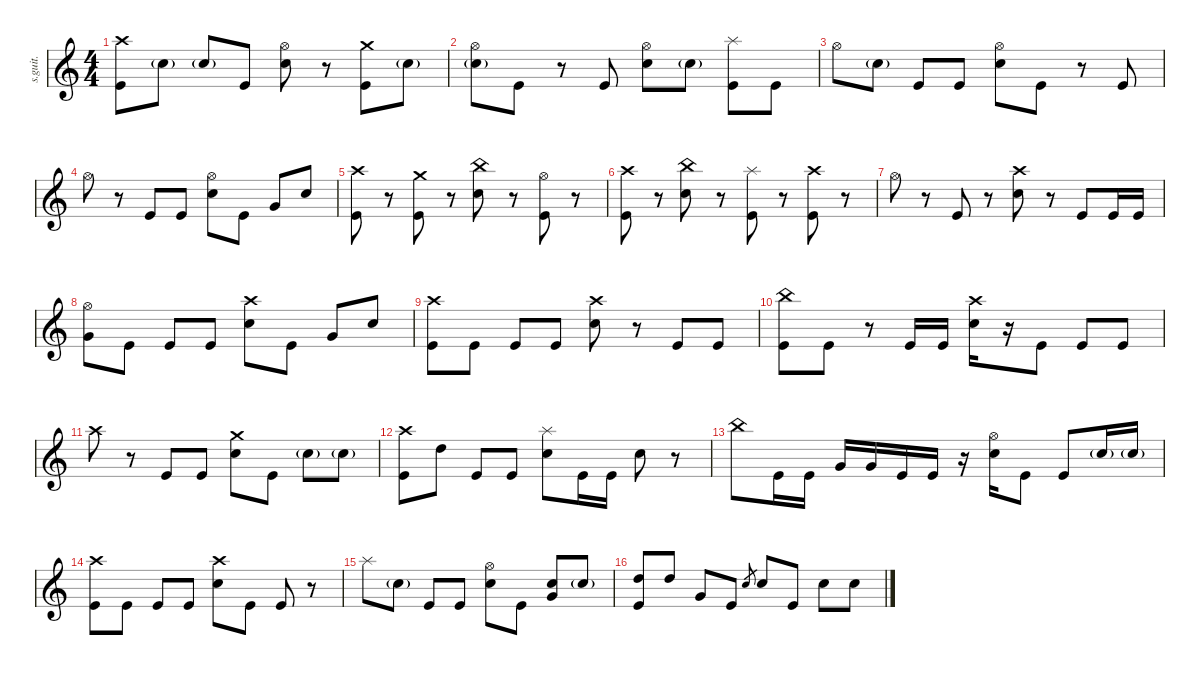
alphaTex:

\defaultSystemsLayout 4
\hideDynamics
\bracketExtendMode nobrackets
\track ("Matt Halpern" "s.guit.") {instrument percussion}
\staff {score}
\articulation defaults
\ts (4 4)
\tempo (213 hide)
\clef g2
\ks c
("Crash high (hit)" "Kick (hit)").8{lyrics (0 "") lyrics (1 "") lyrics (2 "") lyrics (3 "") lyrics (4 "") dy mf} "Snare (hit) 2"{g}.8{lyrics (0 "") lyrics (1 "") lyrics (2 "") lyrics (3 "") lyrics (4 "")} "Snare (hit) 2"{g}.8{lyrics (0 "") lyrics (1 "") lyrics (2 "") lyrics (3 "") lyrics (4 "")} "Kick (hit)".8{lyrics (0 "") lyrics (1 "") lyrics (2 "") lyrics (3 "") lyrics (4 "")} ("Hi-Hat (open)" "Snare (hit) 2").8{lyrics (0 "") lyrics (1 "") lyrics (2 "") lyrics (3 "") lyrics (4 "")} r.8 ("Crash medium (hit)" "Kick (hit)").8{lyrics (0 "") lyrics (1 "") lyrics (2 "") lyrics (3 "") lyrics (4 "")} "Snare (hit) 2"{g}.8{lyrics (0 "") lyrics (1 "") lyrics (2 "") lyrics (3 "") lyrics (4 "")} |
("Hi-Hat (open)" "Snare (hit) 2"{g}).8{lyrics (0 "") lyrics (1 "") lyrics (2 "") lyrics (3 "") lyrics (4 "")} "Kick (hit)".8{lyrics (0 "") lyrics (1 "") lyrics (2 "") lyrics (3 "") lyrics (4 "")} r.8 "Kick (hit)".8{lyrics (0 "") lyrics (1 "") lyrics (2 "") lyrics (3 "") lyrics (4 "")} ("Hi-Hat (open)" "Snare (hit) 2").8{lyrics (0 "") lyrics (1 "") lyrics (2 "") lyrics (3 "") lyrics (4 "")} "Snare (hit) 2"{g}.8{lyrics (0 "") lyrics (1 "") lyrics (2 "") lyrics (3 "") lyrics (4 "")} ("Splash (hit)" "Kick (hit)").8{lyrics (0 "") lyrics (1 "") lyrics (2 "") lyrics (3 "") lyrics (4 "")} "Kick (hit)".8{lyrics (0 "") lyrics (1 "") lyrics (2 "") lyrics (3 "") lyrics (4 "")} |
"Hi-Hat (open)".8{lyrics (0 "") lyrics (1 "") lyrics (2 "") lyrics (3 "") lyrics (4 "")} "Snare (hit) 2"{g}.8{lyrics (0 "") lyrics (1 "") lyrics (2 "") lyrics (3 "") lyrics (4 "")} "Kick (hit)".8{lyrics (0 "") lyrics (1 "") lyrics (2 "") lyrics (3 "") lyrics (4 "")} "Kick (hit)".8{lyrics (0 "") lyrics (1 "") lyrics (2 "") lyrics (3 "") lyrics (4 "")} ("Hi-Hat (open)" "Snare (hit) 2").8{lyrics (0 "") lyrics (1 "") lyrics (2 "") lyrics (3 "") lyrics (4 "")} "Kick (hit)".8{lyrics (0 "") lyrics (1 "") lyrics (2 "") lyrics (3 "") lyrics (4 "")} r.8 "Kick (hit)".8{lyrics (0 "") lyrics (1 "") lyrics (2 "") lyrics (3 "") lyrics (4 "")} |
"Hi-Hat (open)".8{lyrics (0 "") lyrics (1 "") lyrics (2 "") lyrics (3 "") lyrics (4 "")} r.8 "Kick (hit)".8{lyrics (0 "") lyrics (1 "") lyrics (2 "") lyrics (3 "") lyrics (4 "")} "Kick (hit)".8{lyrics (0 "") lyrics (1 "") lyrics (2 "") lyrics (3 "") lyrics (4 "")} ("Hi-Hat (open)" "Snare (hit) 2").8{lyrics (0 "") lyrics (1 "") lyrics (2 "") lyrics (3 "") lyrics (4 "")} "Kick (hit)".8{lyrics (0 "") lyrics (1 "") lyrics (2 "") lyrics (3 "") lyrics (4 "")} "Very Low Tom (hit)".8{lyrics (0 "") lyrics (1 "") lyrics (2 "") lyrics (3 "") lyrics (4 "")} "Snare (hit) 2".8{lyrics (0 "") lyrics (1 "") lyrics (2 "") lyrics (3 "") lyrics (4 "")} |
("Crash high (hit)" "Kick (hit)").8{lyrics (0 "") lyrics (1 "") lyrics (2 "") lyrics (3 "") lyrics (4 "")} r.8 ("Crash medium (hit)" "Kick (hit)").8{lyrics (0 "") lyrics (1 "") lyrics (2 "") lyrics (3 "") lyrics (4 "")} r.8 ("China (hit)" "Snare (hit) 2").8{lyrics (0 "") lyrics (1 "") lyrics (2 "") lyrics (3 "") lyrics (4 "")} r.8 ("Hi-Hat (open)" "Kick (hit)").8{lyrics (0 "") lyrics (1 "") lyrics (2 "") lyrics (3 "") lyrics (4 "")} r.8 |
("Crash high (hit)" "Kick (hit)").8{lyrics (0 "") lyrics (1 "") lyrics (2 "") lyrics (3 "") lyrics (4 "")} r.8 ("China (hit)" "Snare (hit) 2").8{lyrics (0 "") lyrics (1 "") lyrics (2 "") lyrics (3 "") lyrics (4 "")} r.8 ("Splash (hit)" "Kick (hit)").8{lyrics (0 "") lyrics (1 "") lyrics (2 "") lyrics (3 "") lyrics (4 "")} r.8 ("Crash high (hit)" "Kick (hit)").8{lyrics (0 "") lyrics (1 "") lyrics (2 "") lyrics (3 "") lyrics (4 "")} r.8 |
"Hi-Hat (open)".8{lyrics (0 "") lyrics (1 "") lyrics (2 "") lyrics (3 "") lyrics (4 "")} r.8 "Kick (hit)".8{lyrics (0 "") lyrics (1 "") lyrics (2 "") lyrics (3 "") lyrics (4 "")} r.8 ("Crash high (hit)" "Snare (hit) 2").8{lyrics (0 "") lyrics (1 "") lyrics (2 "") lyrics (3 "") lyrics (4 "")} r.8 "Kick (hit)".8{lyrics (0 "") lyrics (1 "") lyrics (2 "") lyrics (3 "") lyrics (4 "")} "Kick (hit)".16{lyrics (0 "") lyrics (1 "") lyrics (2 "") lyrics (3 "") lyrics (4 "")} "Kick (hit)".16{lyrics (0 "") lyrics (1 "") lyrics (2 "") lyrics (3 "") lyrics (4 "")} |
("Hi-Hat (open)" "Very Low Tom (hit)").8{lyrics (0 "") lyrics (1 "") lyrics (2 "") lyrics (3 "") lyrics (4 "")} "Kick (hit)".8{lyrics (0 "") lyrics (1 "") lyrics (2 "") lyrics (3 "") lyrics (4 "")} "Kick (hit)".8{lyrics (0 "") lyrics (1 "") lyrics (2 "") lyrics (3 "") lyrics (4 "")} "Kick (hit)".8{lyrics (0 "") lyrics (1 "") lyrics (2 "") lyrics (3 "") lyrics (4 "")} ("Crash high (hit)" "Snare (hit) 2").8{lyrics (0 "") lyrics (1 "") lyrics (2 "") lyrics (3 "") lyrics (4 "")} "Kick (hit)".8{lyrics (0 "") lyrics (1 "") lyrics (2 "") lyrics (3 "") lyrics (4 "")} "Very Low Tom (hit)".8{lyrics (0 "") lyrics (1 "") lyrics (2 "") lyrics (3 "") lyrics (4 "")} "Snare (hit) 2".8{lyrics (0 "") lyrics (1 "") lyrics (2 "") lyrics (3 "") lyrics (4 "")} |
("Crash high (hit)" "Kick (hit)").8{lyrics (0 "") lyrics (1 "") lyrics (2 "") lyrics (3 "") lyrics (4 "")} "Kick (hit)".8{lyrics (0 "") lyrics (1 "") lyrics (2 "") lyrics (3 "") lyrics (4 "")} "Kick (hit)".8{lyrics (0 "") lyrics (1 "") lyrics (2 "") lyrics (3 "") lyrics (4 "")} "Kick (hit)".8{lyrics (0 "") lyrics (1 "") lyrics (2 "") lyrics (3 "") lyrics (4 "")} ("Crash high (hit)" "Snare (hit) 2").8{lyrics (0 "") lyrics (1 "") lyrics (2 "") lyrics (3 "") lyrics (4 "")} r.8 "Kick (hit)".8{lyrics (0 "") lyrics (1 "") lyrics (2 "") lyrics (3 "") lyrics (4 "")} "Kick (hit)".8{lyrics (0 "") lyrics (1 "") lyrics (2 "") lyrics (3 "") lyrics (4 "")} |
("China (hit)" "Kick (hit)").8{lyrics (0 "") lyrics (1 "") lyrics (2 "") lyrics (3 "") lyrics (4 "")} "Kick (hit)".8{lyrics (0 "") lyrics (1 "") lyrics (2 "") lyrics (3 "") lyrics (4 "")} r.8 "Kick (hit)".16{lyrics (0 "") lyrics (1 "") lyrics (2 "") lyrics (3 "") lyrics (4 "")} "Kick (hit)".16{lyrics (0 "") lyrics (1 "") lyrics (2 "") lyrics (3 "") lyrics (4 "")} ("Crash high (hit)" "Snare (hit) 2").16{lyrics (0 "") lyrics (1 "") lyrics (2 "") lyrics (3 "") lyrics (4 "")} r.16 "Kick (hit)".8{lyrics (0 "") lyrics (1 "") lyrics (2 "") lyrics (3 "") lyrics (4 "")} "Kick (hit)".8{lyrics (0 "") lyrics (1 "") lyrics (2 "") lyrics (3 "") lyrics (4 "")} "Kick (hit)".8{lyrics (0 "") lyrics (1 "") lyrics (2 "") lyrics (3 "") lyrics (4 "")} |
"Crash high (hit)".8{lyrics (0 "") lyrics (1 "") lyrics (2 "") lyrics (3 "") lyrics (4 "")} r.8 "Kick (hit)".8{lyrics (0 "") lyrics (1 "") lyrics (2 "") lyrics (3 "") lyrics (4 "")} "Kick (hit)".8{lyrics (0 "") lyrics (1 "") lyrics (2 "") lyrics (3 "") lyrics (4 "")} ("Crash medium (hit)" "Snare (hit) 2").8{lyrics (0 "") lyrics (1 "") lyrics (2 "") lyrics (3 "") lyrics (4 "")} "Kick (hit)".8{lyrics (0 "") lyrics (1 "") lyrics (2 "") lyrics (3 "") lyrics (4 "")} "Snare (hit) 2"{g}.8{lyrics (0 "") lyrics (1 "") lyrics (2 "") lyrics (3 "") lyrics (4 "")} "Snare (hit) 2"{g}.8{lyrics (0 "") lyrics (1 "") lyrics (2 "") lyrics (3 "") lyrics (4 "")} |
("Crash high (hit)" "Kick (hit)").8{lyrics (0 "") lyrics (1 "") lyrics (2 "") lyrics (3 "") lyrics (4 "")} "High Tom (hit)".8{lyrics (0 "") lyrics (1 "") lyrics (2 "") lyrics (3 "") lyrics (4 "")} "Kick (hit)".8{lyrics (0 "") lyrics (1 "") lyrics (2 "") lyrics (3 "") lyrics (4 "")} "Kick (hit)".8{lyrics (0 "") lyrics (1 "") lyrics (2 "") lyrics (3 "") lyrics (4 "")} ("Splash (hit)" "Snare (hit) 2").8{lyrics (0 "") lyrics (1 "") lyrics (2 "") lyrics (3 "") lyrics (4 "")} "Kick (hit)".16{lyrics (0 "") lyrics (1 "") lyrics (2 "") lyrics (3 "") lyrics (4 "")} "Kick (hit)".16{lyrics (0 "") lyrics (1 "") lyrics (2 "") lyrics (3 "") lyrics (4 "")} "Snare (hit) 2".8{lyrics (0 "") lyrics (1 "") lyrics (2 "") lyrics (3 "") lyrics (4 "")} r.8 |
"China (hit)".8{lyrics (0 "") lyrics (1 "") lyrics (2 "") lyrics (3 "") lyrics (4 "")} "Kick (hit)".16{lyrics (0 "") lyrics (1 "") lyrics (2 "") lyrics (3 "") lyrics (4 "")} "Kick (hit)".16{lyrics (0 "") lyrics (1 "") lyrics (2 "") lyrics (3 "") lyrics (4 "")} "Very Low Tom (hit)".16{lyrics (0 "") lyrics (1 "") lyrics (2 "") lyrics (3 "") lyrics (4 "")} "Very Low Tom (hit)".16{lyrics (0 "") lyrics (1 "") lyrics (2 "") lyrics (3 "") lyrics (4 "")} "Kick (hit)".16{lyrics (0 "") lyrics (1 "") lyrics (2 "") lyrics (3 "") lyrics (4 "")} "Kick (hit)".16{lyrics (0 "") lyrics (1 "") lyrics (2 "") lyrics (3 "") lyrics (4 "")} r.16 ("Hi-Hat (open)" "Snare (hit) 2").16{lyrics (0 "") lyrics (1 "") lyrics (2 "") lyrics (3 "") lyrics (4 "")} "Kick (hit)".8{lyrics (0 "") lyrics (1 "") lyrics (2 "") lyrics (3 "") lyrics (4 "")} "Kick (hit)".8{lyrics (0 "") lyrics (1 "") lyrics (2 "") lyrics (3 "") lyrics (4 "")} "Snare (hit) 2"{g}.16{lyrics (0 "") lyrics (1 "") lyrics (2 "") lyrics (3 "") lyrics (4 "")} "Snare (hit) 2"{g}.16{lyrics (0 "") lyrics (1 "") lyrics (2 "") lyrics (3 "") lyrics (4 "")} |
("Crash high (hit)" "Kick (hit)").8{lyrics (0 "") lyrics (1 "") lyrics (2 "") lyrics (3 "") lyrics (4 "")} "Kick (hit)".8{lyrics (0 "") lyrics (1 "") lyrics (2 "") lyrics (3 "") lyrics (4 "")} "Kick (hit)".8{lyrics (0 "") lyrics (1 "") lyrics (2 "") lyrics (3 "") lyrics (4 "")} "Kick (hit)".8{lyrics (0 "") lyrics (1 "") lyrics (2 "") lyrics (3 "") lyrics (4 "")} ("Crash high (hit)" "Snare (hit) 2").8{lyrics (0 "") lyrics (1 "") lyrics (2 "") lyrics (3 "") lyrics (4 "")} "Kick (hit)".8{lyrics (0 "") lyrics (1 "") lyrics (2 "") lyrics (3 "") lyrics (4 "")} "Kick (hit)".8{lyrics (0 "") lyrics (1 "") lyrics (2 "") lyrics (3 "") lyrics (4 "")} r.8 |
"Splash (hit)".8{lyrics (0 "") lyrics (1 "") lyrics (2 "") lyrics (3 "") lyrics (4 "")} "Snare (hit) 2"{g}.8{lyrics (0 "") lyrics (1 "") lyrics (2 "") lyrics (3 "") lyrics (4 "")} "Kick (hit)".8{lyrics (0 "") lyrics (1 "") lyrics (2 "") lyrics (3 "") lyrics (4 "")} "Kick (hit)".8{lyrics (0 "") lyrics (1 "") lyrics (2 "") lyrics (3 "") lyrics (4 "")} ("Hi-Hat (open)" "Snare (hit) 2").8{lyrics (0 "") lyrics (1 "") lyrics (2 "") lyrics (3 "") lyrics (4 "")} "Kick (hit)".8{lyrics (0 "") lyrics (1 "") lyrics (2 "") lyrics (3 "") lyrics (4 "")} ("Snare (hit) 2" "Very Low Tom (hit)").8{lyrics (0 "") lyrics (1 "") lyrics (2 "") lyrics (3 "") lyrics (4 "")} "Snare (hit) 2"{g}.8{lyrics (0 "") lyrics (1 "") lyrics (2 "") lyrics (3 "") lyrics (4 "")} |
("High Tom (hit)" "Kick (hit)").8{lyrics (0 "") lyrics (1 "") lyrics (2 "") lyrics (3 "") lyrics (4 "")} "High Tom (hit)".8{lyrics (0 "") lyrics (1 "") lyrics (2 "") lyrics (3 "") lyrics (4 "")} "Very Low Tom (hit)".8{lyrics (0 "") lyrics (1 "") lyrics (2 "") lyrics (3 "") lyrics (4 "")} "Kick (hit)".8{lyrics (0 "") lyrics (1 "") lyrics (2 "") lyrics (3 "") lyrics (4 "")} "Snare (hit) 2".8{lyrics (0 "") lyrics (1 "") lyrics (2 "") lyrics (3 "") lyrics (4 "") gr} "Snare (hit) 2".8{lyrics (0 "") lyrics (1 "") lyrics (2 "") lyrics (3 "") lyrics (4 "")} "Kick (hit)".8{lyrics (0 "") lyrics (1 "") lyrics (2 "") lyrics (3 "") lyrics (4 "")} "Snare (hit) 2".8{lyrics (0 "") lyrics (1 "") lyrics (2 "") lyrics (3 "") lyrics (4 "")} "Snare (hit) 2".8{lyrics (0 "") lyrics (1 "") lyrics (2 "") lyrics (3 "") lyrics (4 "")}
